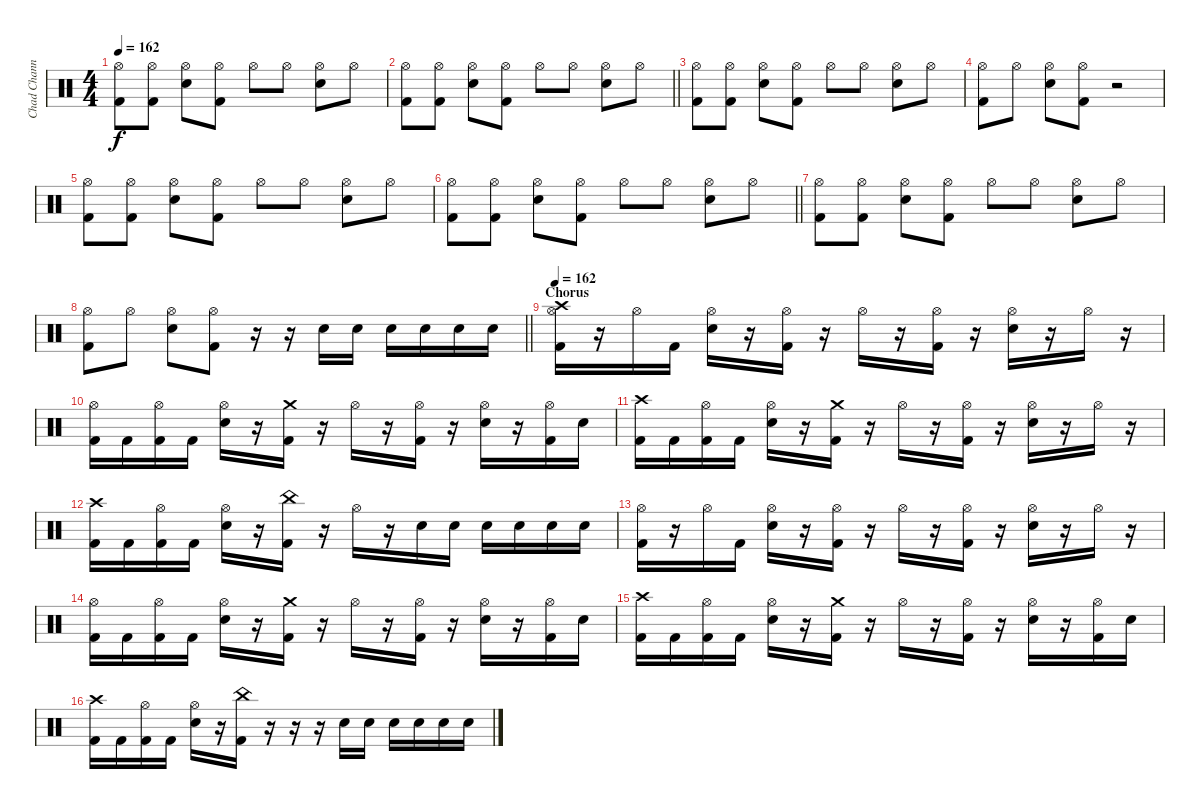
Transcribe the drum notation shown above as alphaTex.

\track ("Chad Channing" "Chad Chann") {instrument percussion}
\staff {score}
\articulation defaults
\ts (4 4)
\tempo 162
\clef neutral
\ks c
("Hi-Hat (open)" "Kick (hit) 2").8{dy f} ("Hi-Hat (open)" "Kick (hit) 2").8 ("Hi-Hat (open)" "Snare (hit) 2").8 ("Hi-Hat (open)" "Kick (hit) 2").8 "Hi-Hat (open)".8 "Hi-Hat (open)".8 ("Hi-Hat (open)" "Snare (hit) 2").8 "Hi-Hat (open)".8 |
\barLineRight lightlight
("Hi-Hat (open)" "Kick (hit) 2").8 ("Hi-Hat (open)" "Kick (hit) 2").8 ("Hi-Hat (open)" "Snare (hit) 2").8 ("Hi-Hat (open)" "Kick (hit) 2").8 "Hi-Hat (open)".8 "Hi-Hat (open)".8 ("Hi-Hat (open)" "Snare (hit) 2").8 "Hi-Hat (open)".8 |
("Hi-Hat (open)" "Kick (hit) 2").8 ("Hi-Hat (open)" "Kick (hit) 2").8 ("Hi-Hat (open)" "Snare (hit) 2").8 ("Hi-Hat (open)" "Kick (hit) 2").8 "Hi-Hat (open)".8 "Hi-Hat (open)".8 ("Hi-Hat (open)" "Snare (hit) 2").8 "Hi-Hat (open)".8 |
("Hi-Hat (open)" "Kick (hit) 2").8 "Hi-Hat (open)".8 ("Hi-Hat (open)" "Snare (hit) 2").8 ("Hi-Hat (open)" "Kick (hit) 2").8 r.2 |
("Hi-Hat (open)" "Kick (hit) 2").8 ("Hi-Hat (open)" "Kick (hit) 2").8 ("Hi-Hat (open)" "Snare (hit) 2").8 ("Hi-Hat (open)" "Kick (hit) 2").8 "Hi-Hat (open)".8 "Hi-Hat (open)".8 ("Hi-Hat (open)" "Snare (hit) 2").8 "Hi-Hat (open)".8 |
\barLineRight lightlight
("Hi-Hat (open)" "Kick (hit) 2").8 ("Hi-Hat (open)" "Kick (hit) 2").8 ("Hi-Hat (open)" "Snare (hit) 2").8 ("Hi-Hat (open)" "Kick (hit) 2").8 "Hi-Hat (open)".8 "Hi-Hat (open)".8 ("Hi-Hat (open)" "Snare (hit) 2").8 "Hi-Hat (open)".8 |
("Hi-Hat (open)" "Kick (hit) 2").8 ("Hi-Hat (open)" "Kick (hit) 2").8 ("Hi-Hat (open)" "Snare (hit) 2").8 ("Hi-Hat (open)" "Kick (hit) 2").8 "Hi-Hat (open)".8 "Hi-Hat (open)".8 ("Hi-Hat (open)" "Snare (hit) 2").8 "Hi-Hat (open)".8 |
\barLineRight lightlight
("Hi-Hat (open)" "Kick (hit) 2").8 "Hi-Hat (open)".8 ("Hi-Hat (open)" "Snare (hit) 2").8 ("Hi-Hat (open)" "Kick (hit) 2").8 r.16 r.16 "Snare (hit) 2".16 "Snare (hit) 2".16 "Snare (hit) 2".16 "Snare (hit) 2".16 "Snare (hit) 2".16 "Snare (hit) 2".16 |
\section ("" "Chorus")
\tempo 162
("Crash high (hit)" "Hi-Hat (open)" "Kick (hit) 2").16 r.16 "Hi-Hat (open)".16 "Kick (hit) 2".16 ("Hi-Hat (open)" "Snare (hit) 2").16 r.16 ("Hi-Hat (open)" "Kick (hit) 2").16 r.16 "Hi-Hat (open)".16 r.16 ("Hi-Hat (open)" "Kick (hit) 2").16 r.16 ("Hi-Hat (open)" "Snare (hit) 2").16 r.16 "Hi-Hat (open)".16 r.16 |
("Hi-Hat (open)" "Kick (hit) 2").16 "Kick (hit) 2".16 ("Hi-Hat (open)" "Kick (hit) 2").16 "Kick (hit) 2".16 ("Hi-Hat (open)" "Snare (hit) 2").16 r.16 ("Crash medium (hit)" "Kick (hit) 2").16 r.16 "Hi-Hat (open)".16 r.16 ("Hi-Hat (open)" "Kick (hit) 2").16 r.16 ("Hi-Hat (open)" "Snare (hit) 2").16 r.16 ("Hi-Hat (open)" "Kick (hit) 2").16 "Snare (hit) 2".16 |
("Crash high (hit)" "Kick (hit) 2").16 "Kick (hit) 2".16 ("Hi-Hat (open)" "Kick (hit) 2").16 "Kick (hit) 2".16 ("Hi-Hat (open)" "Snare (hit) 2").16 r.16 ("Crash medium (hit)" "Kick (hit) 2").16 r.16 "Hi-Hat (open)".16 r.16 ("Hi-Hat (open)" "Kick (hit) 2").16 r.16 ("Hi-Hat (open)" "Snare (hit) 2").16 r.16 "Hi-Hat (open)".16 r.16 |
("Crash high (hit)" "Kick (hit) 2").16 "Kick (hit) 2".16 ("Hi-Hat (open)" "Kick (hit) 2").16 "Kick (hit) 2".16 ("Hi-Hat (open)" "Snare (hit) 2").16 r.16 ("China (hit)" "Kick (hit) 2").16 r.16 "Hi-Hat (open)".16 r.16 "Snare (hit) 2".16 "Snare (hit) 2".16 "Snare (hit) 2".16 "Snare (hit) 2".16 "Snare (hit) 2".16 "Snare (hit) 2".16 |
("Hi-Hat (open)" "Kick (hit) 2").16 r.16 "Hi-Hat (open)".16 "Kick (hit) 2".16 ("Hi-Hat (open)" "Snare (hit) 2").16 r.16 ("Hi-Hat (open)" "Kick (hit) 2").16 r.16 "Hi-Hat (open)".16 r.16 ("Hi-Hat (open)" "Kick (hit) 2").16 r.16 ("Hi-Hat (open)" "Snare (hit) 2").16 r.16 "Hi-Hat (open)".16 r.16 |
("Hi-Hat (open)" "Kick (hit) 2").16 "Kick (hit) 2".16 ("Hi-Hat (open)" "Kick (hit) 2").16 "Kick (hit) 2".16 ("Hi-Hat (open)" "Snare (hit) 2").16 r.16 ("Crash medium (hit)" "Kick (hit) 2").16 r.16 "Hi-Hat (open)".16 r.16 ("Hi-Hat (open)" "Kick (hit) 2").16 r.16 ("Hi-Hat (open)" "Snare (hit) 2").16 r.16 ("Hi-Hat (open)" "Kick (hit) 2").16 "Snare (hit) 2".16 |
("Crash high (hit)" "Kick (hit) 2").16 "Kick (hit) 2".16 ("Hi-Hat (open)" "Kick (hit) 2").16 "Kick (hit) 2".16 ("Hi-Hat (open)" "Snare (hit) 2").16 r.16 ("Crash medium (hit)" "Kick (hit) 2").16 r.16 "Hi-Hat (open)".16 r.16 ("Hi-Hat (open)" "Kick (hit) 2").16 r.16 ("Hi-Hat (open)" "Snare (hit) 2").16 r.16 ("Hi-Hat (open)" "Kick (hit) 2").16 "Snare (hit) 2".16 |
("Crash high (hit)" "Kick (hit) 2").16 "Kick (hit) 2".16 ("Hi-Hat (open)" "Kick (hit) 2").16 "Kick (hit) 2".16 ("Hi-Hat (open)" "Snare (hit) 2").16 r.16 ("China (hit)" "Kick (hit) 2").16 r.16 r.16 r.16 "Snare (hit) 2".16 "Snare (hit) 2".16 "Snare (hit) 2".16 "Snare (hit) 2".16 "Snare (hit) 2".16 "Snare (hit) 2".16
